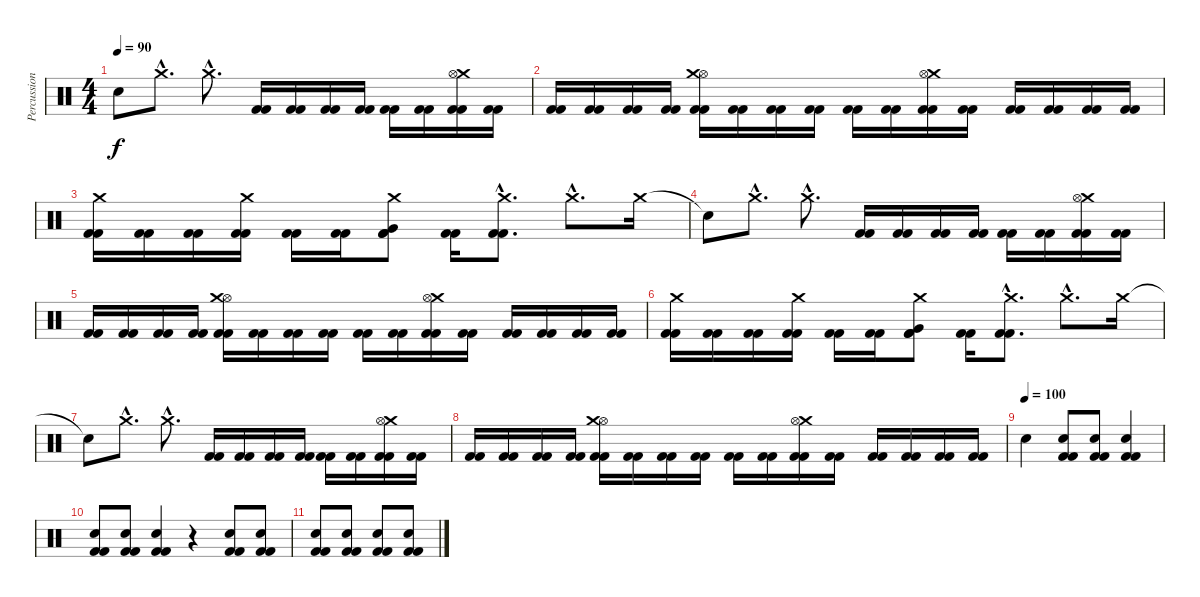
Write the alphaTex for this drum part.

\track ("Percussion" "Percussion") {instrument percussion}
\staff {score}
\articulation defaults
\ts (4 4)
\tempo 90
\clef neutral
\ks c "Snare (hit)"{t}.8{dy f} "Crash medium (hit)"{hac}.8{d} "Crash medium (hit)"{hac}.8{d}
("Kick (hit) 2" "Kick (hit) 2").16 ("Kick (hit) 2" "Kick (hit) 2").16 ("Kick (hit) 2" "Kick (hit) 2").16 ("Kick (hit) 2" "Kick (hit) 2").16 ("Kick (hit) 2" "Kick (hit) 2").16 ("Kick (hit) 2" "Kick (hit) 2").16 ("Kick (hit) 2" "Kick (hit) 2" "Crash medium (hit)" "Hi-Hat (open)").16 ("Kick (hit) 2" "Kick (hit) 2").16 |
("Kick (hit) 2" "Kick (hit) 2").16 ("Kick (hit) 2" "Kick (hit) 2").16 ("Kick (hit) 2" "Kick (hit) 2").16 ("Kick (hit) 2" "Kick (hit) 2").16 ("Kick (hit) 2" "Kick (hit) 2" "Hi-Hat (open)" "Crash medium (hit)").16 ("Kick (hit) 2" "Kick (hit) 2").16 ("Kick (hit) 2" "Kick (hit) 2").16 ("Kick (hit) 2" "Kick (hit) 2").16 ("Kick (hit) 2" "Kick (hit) 2").16 ("Kick (hit) 2" "Kick (hit) 2").16 ("Kick (hit) 2" "Kick (hit) 2" "Crash medium (hit)" "Hi-Hat (open)").16 ("Kick (hit) 2" "Kick (hit) 2").16 ("Kick (hit) 2" "Kick (hit) 2").16 ("Kick (hit) 2" "Kick (hit) 2").16 ("Kick (hit) 2" "Kick (hit) 2").16 ("Kick (hit) 2" "Kick (hit) 2").16 |
("Kick (hit) 2" "Kick (hit) 2" "Crash medium (hit)").16 ("Kick (hit) 2" "Kick (hit) 2").16 ("Kick (hit) 2" "Kick (hit) 2").16 ("Kick (hit) 2" "Kick (hit) 2" "Crash medium (hit)").16 ("Kick (hit) 2" "Kick (hit) 2").16 ("Kick (hit) 2" "Kick (hit) 2").16 ("Kick (hit) 2" "Kick (hit) 2" "Very Low Tom (hit)" "Crash medium (hit)").8 ("Kick (hit) 2" "Kick (hit) 2").16 ("Kick (hit) 2"{hac} "Kick (hit) 2"{hac} "Crash medium (hit)"{hac}).8{d} "Crash medium (hit)"{hac}.8{d} "Crash medium (hit)".16 |
"Snare (hit)"{t}.8 "Crash medium (hit)"{hac}.8{d} "Crash medium (hit)"{hac}.8{d} ("Kick (hit) 2" "Kick (hit) 2").16 ("Kick (hit) 2" "Kick (hit) 2").16 ("Kick (hit) 2" "Kick (hit) 2").16 ("Kick (hit) 2" "Kick (hit) 2").16 ("Kick (hit) 2" "Kick (hit) 2").16 ("Kick (hit) 2" "Kick (hit) 2").16 ("Kick (hit) 2" "Kick (hit) 2" "Crash medium (hit)" "Hi-Hat (open)").16 ("Kick (hit) 2" "Kick (hit) 2").16 |
("Kick (hit) 2" "Kick (hit) 2").16 ("Kick (hit) 2" "Kick (hit) 2").16 ("Kick (hit) 2" "Kick (hit) 2").16 ("Kick (hit) 2" "Kick (hit) 2").16 ("Kick (hit) 2" "Kick (hit) 2" "Hi-Hat (open)" "Crash medium (hit)").16 ("Kick (hit) 2" "Kick (hit) 2").16 ("Kick (hit) 2" "Kick (hit) 2").16 ("Kick (hit) 2" "Kick (hit) 2").16 ("Kick (hit) 2" "Kick (hit) 2").16 ("Kick (hit) 2" "Kick (hit) 2").16 ("Kick (hit) 2" "Kick (hit) 2" "Crash medium (hit)" "Hi-Hat (open)").16 ("Kick (hit) 2" "Kick (hit) 2").16 ("Kick (hit) 2" "Kick (hit) 2").16 ("Kick (hit) 2" "Kick (hit) 2").16 ("Kick (hit) 2" "Kick (hit) 2").16 ("Kick (hit) 2" "Kick (hit) 2").16 |
("Kick (hit) 2" "Kick (hit) 2" "Crash medium (hit)").16 ("Kick (hit) 2" "Kick (hit) 2").16 ("Kick (hit) 2" "Kick (hit) 2").16 ("Kick (hit) 2" "Kick (hit) 2" "Crash medium (hit)").16 ("Kick (hit) 2" "Kick (hit) 2").16 ("Kick (hit) 2" "Kick (hit) 2").16 ("Kick (hit) 2" "Kick (hit) 2" "Very Low Tom (hit)" "Crash medium (hit)").8 ("Kick (hit) 2" "Kick (hit) 2").16 ("Kick (hit) 2"{hac} "Kick (hit) 2"{hac} "Crash medium (hit)"{hac}).8{d} "Crash medium (hit)"{hac}.8{d} "Crash medium (hit)".16 |
"Snare (hit)"{t}.8 "Crash medium (hit)"{hac}.8{d} "Crash medium (hit)"{hac}.8{d} ("Kick (hit) 2" "Kick (hit) 2").16 ("Kick (hit) 2" "Kick (hit) 2").16 ("Kick (hit) 2" "Kick (hit) 2").16 ("Kick (hit) 2" "Kick (hit) 2").16 ("Kick (hit) 2" "Kick (hit) 2").16 ("Kick (hit) 2" "Kick (hit) 2").16 ("Kick (hit) 2" "Kick (hit) 2" "Crash medium (hit)" "Hi-Hat (open)").16 ("Kick (hit) 2" "Kick (hit) 2").16 |
("Kick (hit) 2" "Kick (hit) 2").16 ("Kick (hit) 2" "Kick (hit) 2").16 ("Kick (hit) 2" "Kick (hit) 2").16 ("Kick (hit) 2" "Kick (hit) 2").16 ("Kick (hit) 2" "Kick (hit) 2" "Hi-Hat (open)" "Crash medium (hit)").16 ("Kick (hit) 2" "Kick (hit) 2").16 ("Kick (hit) 2" "Kick (hit) 2").16 ("Kick (hit) 2" "Kick (hit) 2").16 ("Kick (hit) 2" "Kick (hit) 2").16 ("Kick (hit) 2" "Kick (hit) 2").16 ("Kick (hit) 2" "Kick (hit) 2" "Crash medium (hit)" "Hi-Hat (open)").16 ("Kick (hit) 2" "Kick (hit) 2").16 ("Kick (hit) 2" "Kick (hit) 2").16 ("Kick (hit) 2" "Kick (hit) 2").16 ("Kick (hit) 2" "Kick (hit) 2").16 ("Kick (hit) 2" "Kick (hit) 2").16 |
\tempo (100)
"Snare (hit)".4 ("Kick (hit) 2" "Kick (hit) 2" "Metronome (bell)").8 ("Kick (hit) 2" "Kick (hit) 2" "Metronome (bell)").8 ("Kick (hit) 2" "Kick (hit) 2" "Metronome (bell)").4 |
("Kick (hit) 2" "Kick (hit) 2" "Metronome (bell)").8 ("Kick (hit) 2" "Kick (hit) 2" "Metronome (bell)").8 ("Kick (hit) 2" "Kick (hit) 2" "Metronome (bell)").4 r.4 ("Kick (hit) 2" "Kick (hit) 2" "Metronome (bell)").8 ("Kick (hit) 2" "Kick (hit) 2" "Metronome (bell)").8 |
("Kick (hit) 2" "Kick (hit) 2" "Metronome (bell)").8 ("Kick (hit) 2" "Kick (hit) 2" "Metronome (bell)").8 ("Kick (hit) 2" "Kick (hit) 2" "Metronome (bell)").8 ("Kick (hit) 2" "Kick (hit) 2" "Metronome (bell)").8
